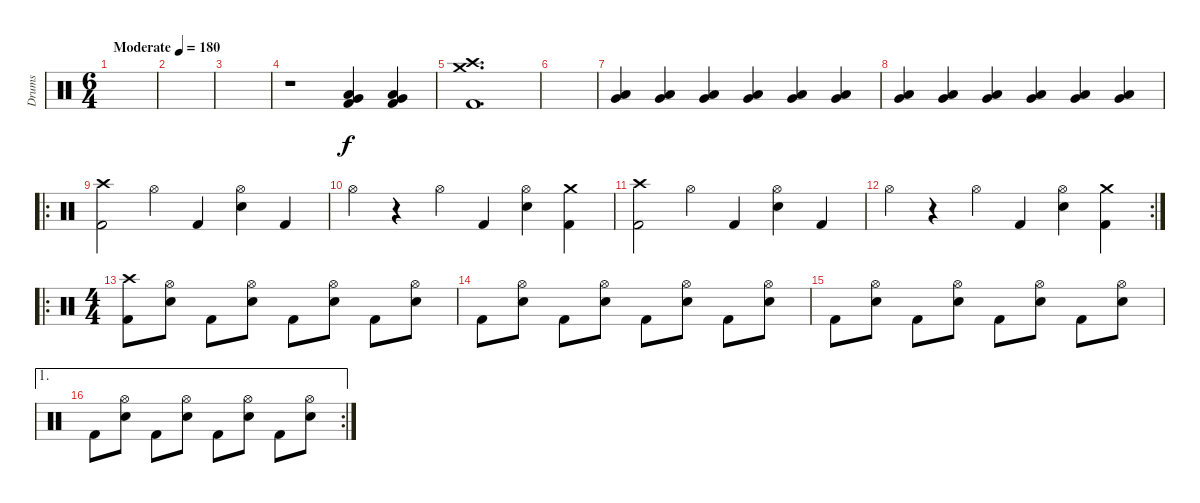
\track ("Drums" "Drums") {instrument percussion}
\staff {score}
\articulation defaults
\ts (6 4)
\tempo (180 "Moderate")
\clef neutral
\ks c
|
|
|
r.1 ("Kick (hit) 2" "Very Low Tom (hit)" "Low Floor Tom (hit)").4 ("Kick (hit) 2" "Very Low Tom (hit)" "Low Floor Tom (hit)").4 |
("Kick (hit) 2" "Crash high (hit)" "Crash medium (hit)").1{d} |
|
("Very Low Tom (hit)" "Low Floor Tom (hit)").4{volume 1} ("Very Low Tom (hit)" "Low Floor Tom (hit)").4{volume 3} ("Very Low Tom (hit)" "Low Floor Tom (hit)").4{volume 5} ("Very Low Tom (hit)" "Low Floor Tom (hit)").4{volume 8} ("Very Low Tom (hit)" "Low Floor Tom (hit)").4{volume 10} ("Very Low Tom (hit)" "Low Floor Tom (hit)").4{volume 12} |
("Very Low Tom (hit)" "Low Floor Tom (hit)").4{volume 14} ("Very Low Tom (hit)" "Low Floor Tom (hit)").4{volume 16} ("Very Low Tom (hit)" "Low Floor Tom (hit)").4 ("Very Low Tom (hit)" "Low Floor Tom (hit)").4 ("Very Low Tom (hit)" "Low Floor Tom (hit)").4 ("Very Low Tom (hit)" "Low Floor Tom (hit)").4 |
\ro
("Kick (hit) 2" "Crash high (hit)").2 "Hi-Hat (open)".4 "Kick (hit) 2".4 ("Electric Snare (hit)" "Hi-Hat (open)").4 "Kick (hit) 2".4 |
"Hi-Hat (open)".4 r.4 "Hi-Hat (open)".4 "Kick (hit) 2".4 ("Electric Snare (hit)" "Hi-Hat (open)").4 ("Kick (hit) 2" "Crash medium (hit)").4 |
("Kick (hit) 2" "Crash high (hit)").2 "Hi-Hat (open)".4 "Kick (hit) 2".4 ("Electric Snare (hit)" "Hi-Hat (open)").4 "Kick (hit) 2".4 |
\rc 2 "Hi-Hat (open)".4
r.4 "Hi-Hat (open)".4 "Kick (hit) 2".4 ("Electric Snare (hit)" "Hi-Hat (open)").4 ("Kick (hit) 2" "Crash medium (hit)").4 |
\ro
\ts (4 4)
("Kick (hit) 2" "Crash high (hit)").8 ("Electric Snare (hit)" "Hi-Hat (open)").8 "Kick (hit) 2".8 ("Electric Snare (hit)" "Hi-Hat (open)").8 "Kick (hit) 2".8 ("Electric Snare (hit)" "Hi-Hat (open)").8 "Kick (hit) 2".8 ("Electric Snare (hit)" "Hi-Hat (open)").8 |
"Kick (hit) 2".8 ("Electric Snare (hit)" "Hi-Hat (open)").8 "Kick (hit) 2".8 ("Electric Snare (hit)" "Hi-Hat (open)").8 "Kick (hit) 2".8 ("Electric Snare (hit)" "Hi-Hat (open)").8 "Kick (hit) 2".8 ("Electric Snare (hit)" "Hi-Hat (open)").8 |
"Kick (hit) 2".8 ("Electric Snare (hit)" "Hi-Hat (open)").8 "Kick (hit) 2".8 ("Electric Snare (hit)" "Hi-Hat (open)").8 "Kick (hit) 2".8 ("Electric Snare (hit)" "Hi-Hat (open)").8 "Kick (hit) 2".8 ("Electric Snare (hit)" "Hi-Hat (open)").8 |
\ae 1
\rc 2 "Kick (hit) 2".8
("Electric Snare (hit)" "Hi-Hat (open)").8 "Kick (hit) 2".8 ("Electric Snare (hit)" "Hi-Hat (open)").8 "Kick (hit) 2".8 ("Electric Snare (hit)" "Hi-Hat (open)").8 "Kick (hit) 2".8 ("Electric Snare (hit)" "Hi-Hat (open)").8
